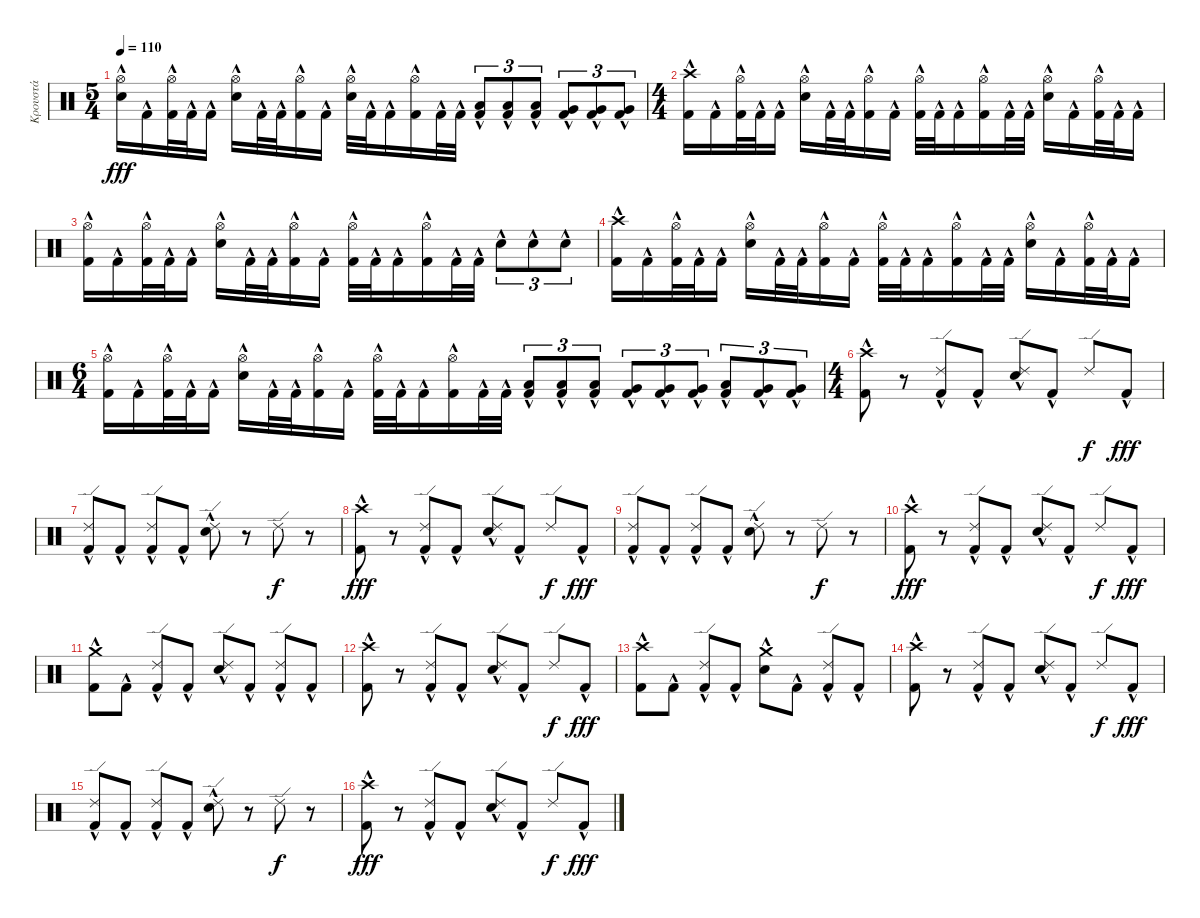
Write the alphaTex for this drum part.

\track ("Κρουστά" "Κρουστά") {instrument percussion}
\staff {score}
\articulation defaults
\ts (5 4)
\tempo 110
\clef neutral
\ks c
("Hi-Hat (open)" "Electric Snare (hit)"{hac}).16{dy fff} "Kick (hit) 2"{hac}.16 ("Hi-Hat (open)" "Kick (hit) 2"{hac}).32 "Kick (hit) 2"{hac}.32 "Kick (hit) 2"{hac}.16 ("Hi-Hat (open)" "Electric Snare (hit)"{hac}).16 "Kick (hit) 2"{hac}.32 "Kick (hit) 2"{hac}.32 ("Hi-Hat (open)" "Kick (hit) 2"{hac}).16 "Kick (hit) 2"{hac}.16 ("Hi-Hat (open)" "Electric Snare (hit)"{hac}).32 "Kick (hit) 2"{hac}.32 "Kick (hit) 2"{hac}.16 ("Hi-Hat (open)" "Kick (hit) 2"{hac}).16 "Kick (hit) 2"{hac}.32 "Kick (hit) 2"{hac}.32 ("Low Tom (hit)" "Kick (hit) 2"{hac}).8{tu (3 2)} ("Low Tom (hit)" "Kick (hit) 2"{hac}).8{tu (3 2)} ("Low Tom (hit)" "Kick (hit) 2"{hac}).8{tu (3 2)} ("Very Low Tom (hit)" "Kick (hit) 2"{hac}).8{tu (3 2)} ("Very Low Tom (hit)" "Kick (hit) 2"{hac}).8{tu (3 2)} ("Very Low Tom (hit)" "Kick (hit) 2"{hac}).8{tu (3 2)} |
\ts (4 4)
("Crash high (hit)" "Kick (hit) 2"{hac}).16 "Kick (hit) 2"{hac}.16 ("Hi-Hat (open)" "Kick (hit) 2"{hac}).32 "Kick (hit) 2"{hac}.32 "Kick (hit) 2"{hac}.16 ("Hi-Hat (open)" "Electric Snare (hit)"{hac}).16 "Kick (hit) 2"{hac}.32 "Kick (hit) 2"{hac}.32 ("Hi-Hat (open)" "Kick (hit) 2"{hac}).16 "Kick (hit) 2"{hac}.16 ("Hi-Hat (open)" "Kick (hit) 2"{hac}).32 "Kick (hit) 2"{hac}.32 "Kick (hit) 2"{hac}.16 ("Hi-Hat (open)" "Kick (hit) 2"{hac}).16 "Kick (hit) 2"{hac}.32 "Kick (hit) 2"{hac}.32 ("Hi-Hat (open)" "Electric Snare (hit)"{hac}).16 "Kick (hit) 2"{hac}.16 ("Hi-Hat (open)" "Kick (hit) 2"{hac}).32 "Kick (hit) 2"{hac}.32 "Kick (hit) 2"{hac}.16 |
("Hi-Hat (open)" "Kick (hit) 2"{hac}).16 "Kick (hit) 2"{hac}.16 ("Hi-Hat (open)" "Kick (hit) 2"{hac}).32 "Kick (hit) 2"{hac}.32 "Kick (hit) 2"{hac}.16 ("Hi-Hat (open)" "Electric Snare (hit)"{hac}).16 "Kick (hit) 2"{hac}.32 "Kick (hit) 2"{hac}.32 ("Hi-Hat (open)" "Kick (hit) 2"{hac}).16 "Kick (hit) 2"{hac}.16 ("Hi-Hat (open)" "Kick (hit) 2"{hac}).32 "Kick (hit) 2"{hac}.32 "Kick (hit) 2"{hac}.16 ("Hi-Hat (open)" "Kick (hit) 2"{hac}).16 "Kick (hit) 2"{hac}.32 "Kick (hit) 2"{hac}.32 "Electric Snare (hit)"{hac}.8{tu (3 2)} "Electric Snare (hit)"{hac}.8{tu (3 2)} "Electric Snare (hit)"{hac}.8{tu (3 2)} |
("Crash high (hit)" "Kick (hit) 2"{hac}).16 "Kick (hit) 2"{hac}.16 ("Hi-Hat (open)" "Kick (hit) 2"{hac}).32 "Kick (hit) 2"{hac}.32 "Kick (hit) 2"{hac}.16 ("Hi-Hat (open)" "Electric Snare (hit)"{hac}).16 "Kick (hit) 2"{hac}.32 "Kick (hit) 2"{hac}.32 ("Hi-Hat (open)" "Kick (hit) 2"{hac}).16 "Kick (hit) 2"{hac}.16 ("Hi-Hat (open)" "Kick (hit) 2"{hac}).32 "Kick (hit) 2"{hac}.32 "Kick (hit) 2"{hac}.16 ("Hi-Hat (open)" "Kick (hit) 2"{hac}).16 "Kick (hit) 2"{hac}.32 "Kick (hit) 2"{hac}.32 ("Hi-Hat (open)" "Electric Snare (hit)"{hac}).16 "Kick (hit) 2"{hac}.16 ("Hi-Hat (open)" "Kick (hit) 2"{hac}).32 "Kick (hit) 2"{hac}.32 "Kick (hit) 2"{hac}.16 |
\ts (6 4)
("Hi-Hat (open)" "Kick (hit) 2"{hac}).16 "Kick (hit) 2"{hac}.16 ("Hi-Hat (open)" "Kick (hit) 2"{hac}).32 "Kick (hit) 2"{hac}.32 "Kick (hit) 2"{hac}.16 ("Hi-Hat (open)" "Electric Snare (hit)"{hac}).16 "Kick (hit) 2"{hac}.32 "Kick (hit) 2"{hac}.32 ("Hi-Hat (open)" "Kick (hit) 2"{hac}).16 "Kick (hit) 2"{hac}.16 ("Hi-Hat (open)" "Kick (hit) 2"{hac}).32 "Kick (hit) 2"{hac}.32 "Kick (hit) 2"{hac}.16 ("Hi-Hat (open)" "Kick (hit) 2"{hac}).16 "Kick (hit) 2"{hac}.32 "Kick (hit) 2"{hac}.32 ("Low Tom (hit)" "Kick (hit) 2"{hac}).8{tu (3 2)} ("Low Tom (hit)" "Kick (hit) 2"{hac}).8{tu (3 2)} ("Low Tom (hit)" "Kick (hit) 2"{hac}).8{tu (3 2)} ("Very Low Tom (hit)" "Kick (hit) 2"{hac}).8{tu (3 2)} ("Very Low Tom (hit)" "Kick (hit) 2"{hac}).8{tu (3 2)} ("Very Low Tom (hit)" "Kick (hit) 2"{hac}).8{tu (3 2)} ("Low Tom (hit)" "Kick (hit) 2"{hac}).8{tu (3 2)} ("Very Low Tom (hit)" "Kick (hit) 2"{hac}).8{tu (3 2)} ("Very Low Tom (hit)" "Kick (hit) 2"{hac}).8{tu (3 2)} |
\ts (4 4)
("Crash high (hit)" "Kick (hit) 2"{hac}).8 r.8 ("Ride (edge) 2" "Kick (hit) 2"{hac}).8 "Kick (hit) 2"{hac}.8 ("Electric Snare (hit)"{hac} "Ride (edge) 2").8 "Kick (hit) 2"{hac}.8 "Ride (edge) 2".8{dy f} "Kick (hit) 2"{hac}.8{dy fff} |
("Kick (hit) 2"{hac} "Ride (edge) 2").8 "Kick (hit) 2"{hac}.8 ("Kick (hit) 2"{hac} "Ride (edge) 2").8 "Kick (hit) 2"{hac}.8 ("Electric Snare (hit)"{hac} "Ride (edge) 2").8 r.8 "Ride (edge) 2".8{dy f} r.8 |
("Crash high (hit)" "Kick (hit) 2"{hac}).8{dy fff} r.8 ("Ride (edge) 2" "Kick (hit) 2"{hac}).8 "Kick (hit) 2"{hac}.8 ("Electric Snare (hit)"{hac} "Ride (edge) 2").8 "Kick (hit) 2"{hac}.8 "Ride (edge) 2".8{dy f} "Kick (hit) 2"{hac}.8{dy fff} |
("Kick (hit) 2"{hac} "Ride (edge) 2").8 "Kick (hit) 2"{hac}.8 ("Kick (hit) 2"{hac} "Ride (edge) 2").8 "Kick (hit) 2"{hac}.8 ("Electric Snare (hit)"{hac} "Ride (edge) 2").8 r.8 "Ride (edge) 2".8{dy f} r.8 |
("Crash high (hit)" "Kick (hit) 2"{hac}).8{dy fff} r.8 ("Ride (edge) 2" "Kick (hit) 2"{hac}).8 "Kick (hit) 2"{hac}.8 ("Electric Snare (hit)"{hac} "Ride (edge) 2").8 "Kick (hit) 2"{hac}.8 "Ride (edge) 2".8{dy f} "Kick (hit) 2"{hac}.8{dy fff} |
("Kick (hit) 2"{hac} "Crash medium (hit)").8 "Kick (hit) 2"{hac}.8 ("Kick (hit) 2"{hac} "Ride (edge) 2").8 "Kick (hit) 2"{hac}.8 ("Electric Snare (hit)"{hac} "Ride (edge) 2").8 "Kick (hit) 2"{hac}.8 ("Kick (hit) 2"{hac} "Ride (edge) 2").8 "Kick (hit) 2"{hac}.8 |
("Crash high (hit)" "Kick (hit) 2"{hac}).8 r.8 ("Ride (edge) 2" "Kick (hit) 2"{hac}).8 "Kick (hit) 2"{hac}.8 ("Electric Snare (hit)"{hac} "Ride (edge) 2").8 "Kick (hit) 2"{hac}.8 "Ride (edge) 2".8{dy f} "Kick (hit) 2"{hac}.8{dy fff} |
("Kick (hit) 2"{hac} "Crash high (hit)").8 "Kick (hit) 2"{hac}.8 ("Kick (hit) 2"{hac} "Ride (edge) 2").8 "Kick (hit) 2"{hac}.8 ("Electric Snare (hit)"{hac} "Crash medium (hit)").8 "Kick (hit) 2"{hac}.8 ("Kick (hit) 2"{hac} "Ride (edge) 2").8 "Kick (hit) 2"{hac}.8 |
("Crash high (hit)" "Kick (hit) 2"{hac}).8 r.8 ("Ride (edge) 2" "Kick (hit) 2"{hac}).8 "Kick (hit) 2"{hac}.8 ("Electric Snare (hit)"{hac} "Ride (edge) 2").8 "Kick (hit) 2"{hac}.8 "Ride (edge) 2".8{dy f} "Kick (hit) 2"{hac}.8{dy fff} |
("Kick (hit) 2"{hac} "Ride (edge) 2").8 "Kick (hit) 2"{hac}.8 ("Kick (hit) 2"{hac} "Ride (edge) 2").8 "Kick (hit) 2"{hac}.8 ("Electric Snare (hit)"{hac} "Ride (edge) 2").8 r.8 "Ride (edge) 2".8{dy f} r.8 |
("Crash high (hit)" "Kick (hit) 2"{hac}).8{dy fff} r.8 ("Ride (edge) 2" "Kick (hit) 2"{hac}).8 "Kick (hit) 2"{hac}.8 ("Electric Snare (hit)"{hac} "Ride (edge) 2").8 "Kick (hit) 2"{hac}.8 "Ride (edge) 2".8{dy f} "Kick (hit) 2"{hac}.8{dy fff}
